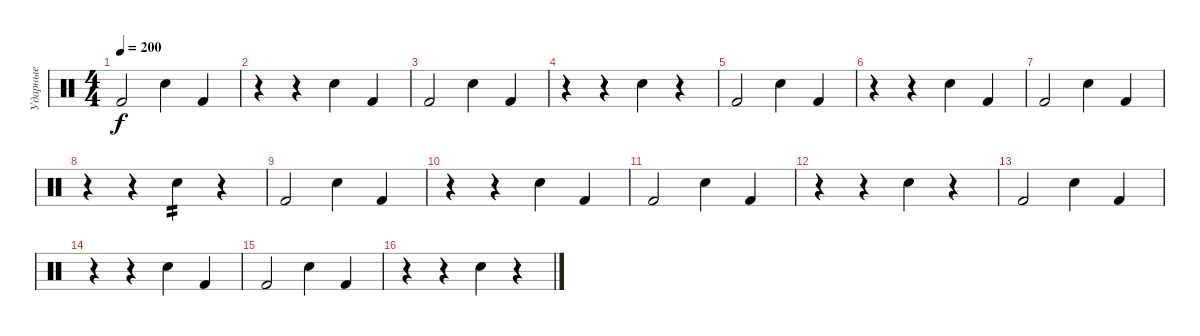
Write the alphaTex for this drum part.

\track ("Ударные" "Ударные") {instrument percussion}
\staff {score}
\articulation defaults
\ts (4 4)
\tempo 200
\clef neutral
\ks c "Kick (hit) 2".2{dy f} "Snare (hit) 2".4 "Kick (hit) 2".4
|
r.4 r.4 "Snare (hit) 2".4 "Kick (hit) 2".4 |
"Kick (hit) 2".2 "Snare (hit) 2".4 "Kick (hit) 2".4 |
r.4 r.4 "Snare (hit) 2".4 r.4 |
"Kick (hit) 2".2 "Snare (hit) 2".4 "Kick (hit) 2".4 |
r.4 r.4 "Snare (hit) 2".4 "Kick (hit) 2".4 |
"Kick (hit) 2".2 "Snare (hit) 2".4 "Kick (hit) 2".4 |
r.4 r.4 "Snare (hit) 2".4{tp 2} r.4 |
"Kick (hit) 2".2 "Snare (hit) 2".4 "Kick (hit) 2".4 |
r.4 r.4 "Snare (hit) 2".4 "Kick (hit) 2".4 |
"Kick (hit) 2".2 "Snare (hit) 2".4 "Kick (hit) 2".4 |
r.4 r.4 "Snare (hit) 2".4 r.4 |
"Kick (hit) 2".2 "Snare (hit) 2".4 "Kick (hit) 2".4 |
r.4 r.4 "Snare (hit) 2".4 "Kick (hit) 2".4 |
"Kick (hit) 2".2 "Snare (hit) 2".4 "Kick (hit) 2".4 |
r.4 r.4 "Snare (hit) 2".4 r.4
